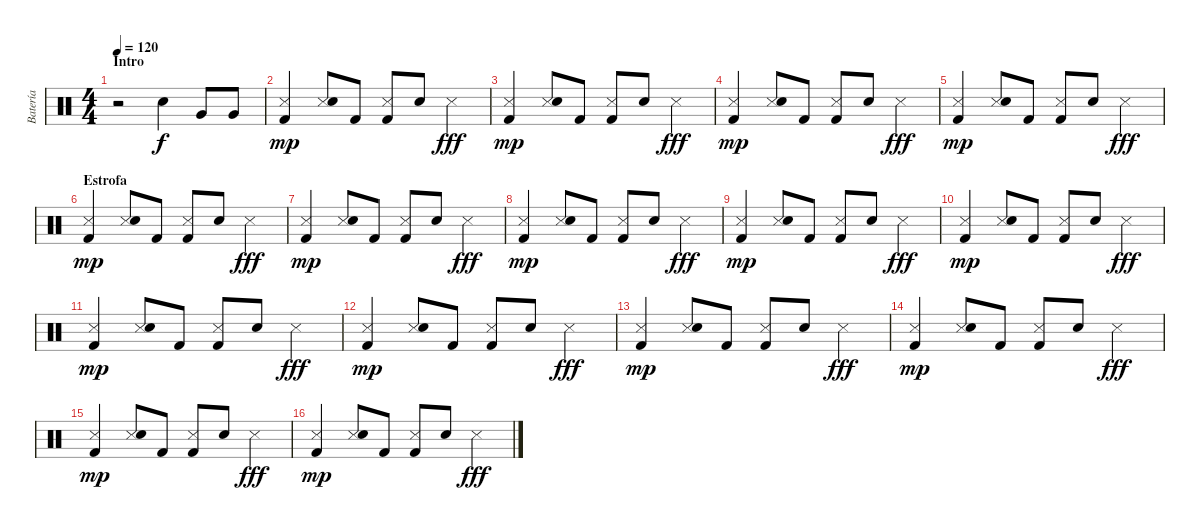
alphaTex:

\track ("Batería" "Batería") {instrument percussion}
\staff {score}
\articulation defaults
\ts (4 4)
\section ("" "Intro")
\tempo 120
\clef neutral
\ks c
r.2{dy f} "Snare (hit) 2".4 "Very Low Tom (hit)".8 "Very Low Tom (hit)".8 |
("Snare (side stick) 3" "Kick (hit) 2").4{dy mp} ("Snare (side stick) 3" "Snare (hit) 2").8 "Kick (hit) 2".8 ("Snare (side stick) 3" "Kick (hit) 2").8 "Snare (hit) 2".8 "Snare (side stick) 3".4{dy fff} |
("Snare (side stick) 3" "Kick (hit) 2").4{dy mp} ("Snare (side stick) 3" "Snare (hit) 2").8 "Kick (hit) 2".8 ("Snare (side stick) 3" "Kick (hit) 2").8 "Snare (hit) 2".8 "Snare (side stick) 3".4{dy fff} |
("Snare (side stick) 3" "Kick (hit) 2").4{dy mp} ("Snare (side stick) 3" "Snare (hit) 2").8 "Kick (hit) 2".8 ("Snare (side stick) 3" "Kick (hit) 2").8 "Snare (hit) 2".8 "Snare (side stick) 3".4{dy fff} |
("Snare (side stick) 3" "Kick (hit) 2").4{dy mp} ("Snare (side stick) 3" "Snare (hit) 2").8 "Kick (hit) 2".8 ("Snare (side stick) 3" "Kick (hit) 2").8 "Snare (hit) 2".8 "Snare (side stick) 3".4{dy fff} |
\section ("" "Estrofa ")
("Snare (side stick) 3" "Kick (hit) 2").4{dy mp} ("Snare (side stick) 3" "Snare (hit) 2").8 "Kick (hit) 2".8 ("Snare (side stick) 3" "Kick (hit) 2").8 "Snare (hit) 2".8 "Snare (side stick) 3".4{dy fff} |
("Snare (side stick) 3" "Kick (hit) 2").4{dy mp} ("Snare (side stick) 3" "Snare (hit) 2").8 "Kick (hit) 2".8 ("Snare (side stick) 3" "Kick (hit) 2").8 "Snare (hit) 2".8 "Snare (side stick) 3".4{dy fff} |
("Snare (side stick) 3" "Kick (hit) 2").4{dy mp} ("Snare (side stick) 3" "Snare (hit) 2").8 "Kick (hit) 2".8 ("Snare (side stick) 3" "Kick (hit) 2").8 "Snare (hit) 2".8 "Snare (side stick) 3".4{dy fff} |
("Snare (side stick) 3" "Kick (hit) 2").4{dy mp} ("Snare (side stick) 3" "Snare (hit) 2").8 "Kick (hit) 2".8 ("Snare (side stick) 3" "Kick (hit) 2").8 "Snare (hit) 2".8 "Snare (side stick) 3".4{dy fff} |
("Snare (side stick) 3" "Kick (hit) 2").4{dy mp} ("Snare (side stick) 3" "Snare (hit) 2").8 "Kick (hit) 2".8 ("Snare (side stick) 3" "Kick (hit) 2").8 "Snare (hit) 2".8 "Snare (side stick) 3".4{dy fff} |
("Snare (side stick) 3" "Kick (hit) 2").4{dy mp} ("Snare (side stick) 3" "Snare (hit) 2").8 "Kick (hit) 2".8 ("Snare (side stick) 3" "Kick (hit) 2").8 "Snare (hit) 2".8 "Snare (side stick) 3".4{dy fff} |
("Snare (side stick) 3" "Kick (hit) 2").4{dy mp} ("Snare (side stick) 3" "Snare (hit) 2").8 "Kick (hit) 2".8 ("Snare (side stick) 3" "Kick (hit) 2").8 "Snare (hit) 2".8 "Snare (side stick) 3".4{dy fff} |
("Snare (side stick) 3" "Kick (hit) 2").4{dy mp} ("Snare (side stick) 3" "Snare (hit) 2").8 "Kick (hit) 2".8 ("Snare (side stick) 3" "Kick (hit) 2").8 "Snare (hit) 2".8 "Snare (side stick) 3".4{dy fff} |
("Snare (side stick) 3" "Kick (hit) 2").4{dy mp} ("Snare (side stick) 3" "Snare (hit) 2").8 "Kick (hit) 2".8 ("Snare (side stick) 3" "Kick (hit) 2").8 "Snare (hit) 2".8 "Snare (side stick) 3".4{dy fff} |
("Snare (side stick) 3" "Kick (hit) 2").4{dy mp} ("Snare (side stick) 3" "Snare (hit) 2").8 "Kick (hit) 2".8 ("Snare (side stick) 3" "Kick (hit) 2").8 "Snare (hit) 2".8 "Snare (side stick) 3".4{dy fff} |
("Snare (side stick) 3" "Kick (hit) 2").4{dy mp} ("Snare (side stick) 3" "Snare (hit) 2").8 "Kick (hit) 2".8 ("Snare (side stick) 3" "Kick (hit) 2").8 "Snare (hit) 2".8 "Snare (side stick) 3".4{dy fff}
